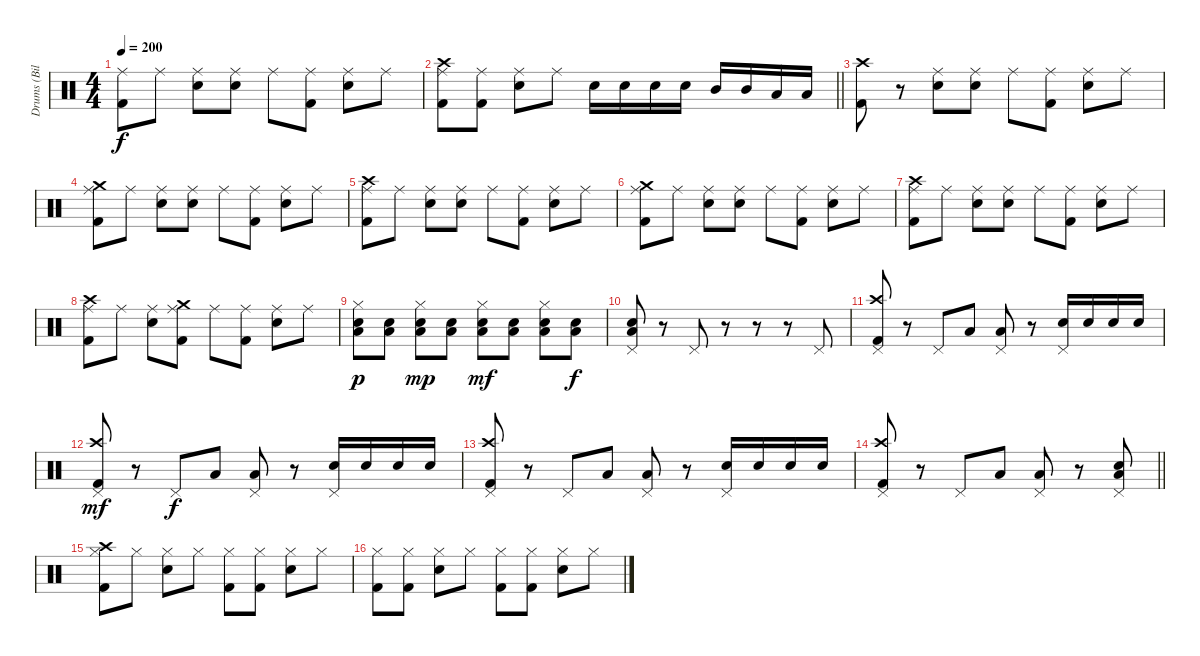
\track ("Drums (Bill Stevenson)" "Drums (Bil") {instrument percussion}
\staff {score}
\articulation defaults
\ts (4 4)
\tempo 200
\clef neutral
\ks c
("Ride (middle)" "Kick (hit) 2").8{dy f} "Ride (middle)".8 ("Ride (middle)" "Electric Snare (hit)").8 ("Ride (middle)" "Electric Snare (hit)").8 "Ride (middle)".8 ("Ride (middle)" "Kick (hit) 2").8 ("Ride (middle)" "Electric Snare (hit)").8 "Ride (middle)".8 |
\barLineRight lightlight
("Ride (middle)" "Crash high (hit)" "Kick (hit) 2").8 ("Ride (middle)" "Kick (hit) 2").8 ("Ride (middle)" "Electric Snare (hit)").8 "Ride (middle)".8 "Electric Snare (hit)".16 "Electric Snare (hit)".16 "Electric Snare (hit)".16 "Electric Snare (hit)".16 "Mid Tom (hit)".16 "Mid Tom (hit)".16 "Low Tom (hit)".16 "Low Tom (hit)".16 |
("Crash high (hit)" "Kick (hit) 2").8 r.8 ("Ride (middle)" "Electric Snare (hit)").8 ("Ride (middle)" "Electric Snare (hit)").8 "Ride (middle)".8 ("Ride (middle)" "Kick (hit) 2").8 ("Ride (middle)" "Electric Snare (hit)").8 "Ride (middle)".8 |
("Ride (middle)" "Crash medium (hit)" "Kick (hit) 2").8 "Ride (middle)".8 ("Ride (middle)" "Electric Snare (hit)").8 ("Ride (middle)" "Electric Snare (hit)").8 "Ride (middle)".8 ("Ride (middle)" "Kick (hit) 2").8 ("Ride (middle)" "Electric Snare (hit)").8 "Ride (middle)".8 |
("Ride (middle)" "Crash high (hit)" "Kick (hit) 2").8 "Ride (middle)".8 ("Ride (middle)" "Electric Snare (hit)").8 ("Ride (middle)" "Electric Snare (hit)").8 "Ride (middle)".8 ("Ride (middle)" "Kick (hit) 2").8 ("Ride (middle)" "Electric Snare (hit)").8 "Ride (middle)".8 |
("Ride (middle)" "Crash medium (hit)" "Kick (hit) 2").8 "Ride (middle)".8 ("Ride (middle)" "Electric Snare (hit)").8 ("Ride (middle)" "Electric Snare (hit)").8 "Ride (middle)".8 ("Ride (middle)" "Kick (hit) 2").8 ("Ride (middle)" "Electric Snare (hit)").8 "Ride (middle)".8 |
("Ride (middle)" "Crash high (hit)" "Kick (hit) 2").8 "Ride (middle)".8 ("Ride (middle)" "Electric Snare (hit)").8 ("Ride (middle)" "Electric Snare (hit)").8 "Ride (middle)".8 ("Ride (middle)" "Kick (hit) 2").8 ("Ride (middle)" "Electric Snare (hit)").8 "Ride (middle)".8 |
("Ride (middle)" "Crash high (hit)" "Kick (hit) 2").8 "Ride (middle)".8 ("Ride (middle)" "Electric Snare (hit)").8 ("Ride (middle)" "Crash medium (hit)" "Kick (hit) 2").8 "Ride (middle)".8 ("Ride (middle)" "Kick (hit) 2").8 ("Ride (middle)" "Electric Snare (hit)").8 "Ride (middle)".8 |
("Hi-Hat (closed)" "Low Tom (hit)" "Electric Snare (hit)").8{dy p} ("Low Tom (hit)" "Electric Snare (hit)").8 ("Hi-Hat (closed)" "Low Tom (hit)" "Electric Snare (hit)").8{dy mp} ("Low Tom (hit)" "Electric Snare (hit)").8 ("Hi-Hat (closed)" "Low Tom (hit)" "Electric Snare (hit)").8{dy mf} ("Low Tom (hit)" "Electric Snare (hit)").8 ("Hi-Hat (closed)" "Low Tom (hit)" "Electric Snare (hit)").8 ("Low Tom (hit)" "Electric Snare (hit)").8{dy f} |
("Pedal Hi-Hat (hit)" "Low Tom (hit)" "Electric Snare (hit)").8 r.8 "Pedal Hi-Hat (hit)".8 r.8 r.8 r.8 "Pedal Hi-Hat (hit)".8 |
("Pedal Hi-Hat (hit)" "Crash high (hit)" "Kick (hit) 2").8 r.8 "Pedal Hi-Hat (hit)".8 "Low Tom (hit)".8 ("Pedal Hi-Hat (hit)" "Low Tom (hit)").8 r.8 ("Pedal Hi-Hat (hit)" "Electric Snare (hit)").16 "Electric Snare (hit)".16 "Electric Snare (hit)".16 "Electric Snare (hit)".16 |
("Pedal Hi-Hat (hit)" "Crash high (hit)" "Kick (hit) 2").8{dy mf} r.8 "Pedal Hi-Hat (hit)".8{dy f} "Low Tom (hit)".8 ("Pedal Hi-Hat (hit)" "Low Tom (hit)").8 r.8 ("Pedal Hi-Hat (hit)" "Electric Snare (hit)").16 "Electric Snare (hit)".16 "Electric Snare (hit)".16 "Electric Snare (hit)".16 |
("Pedal Hi-Hat (hit)" "Crash high (hit)" "Kick (hit) 2").8 r.8 "Pedal Hi-Hat (hit)".8 "Low Tom (hit)".8 ("Pedal Hi-Hat (hit)" "Low Tom (hit)").8 r.8 ("Pedal Hi-Hat (hit)" "Electric Snare (hit)").16 "Electric Snare (hit)".16 "Electric Snare (hit)".16 "Electric Snare (hit)".16 |
\barLineRight lightlight
("Pedal Hi-Hat (hit)" "Crash high (hit)" "Kick (hit) 2").8 r.8 "Pedal Hi-Hat (hit)".8 "Low Tom (hit)".8 ("Pedal Hi-Hat (hit)" "Low Tom (hit)").8 r.8 ("Pedal Hi-Hat (hit)" "Low Tom (hit)" "Electric Snare (hit)").8 |
("Hi-Hat (closed)" "Crash high (hit)" "Kick (hit) 2").8 "Hi-Hat (closed)".8 ("Hi-Hat (closed)" "Electric Snare (hit)").8 "Hi-Hat (closed)".8 ("Hi-Hat (closed)" "Kick (hit) 2").8 ("Hi-Hat (closed)" "Kick (hit) 2").8 ("Hi-Hat (closed)" "Electric Snare (hit)").8 "Hi-Hat (closed)".8 |
("Hi-Hat (closed)" "Kick (hit) 2").8 ("Hi-Hat (closed)" "Kick (hit) 2").8 ("Hi-Hat (closed)" "Electric Snare (hit)").8 "Hi-Hat (closed)".8 ("Hi-Hat (closed)" "Kick (hit) 2").8 ("Hi-Hat (closed)" "Kick (hit) 2").8 ("Hi-Hat (closed)" "Electric Snare (hit)").8 "Hi-Hat (closed)".8
